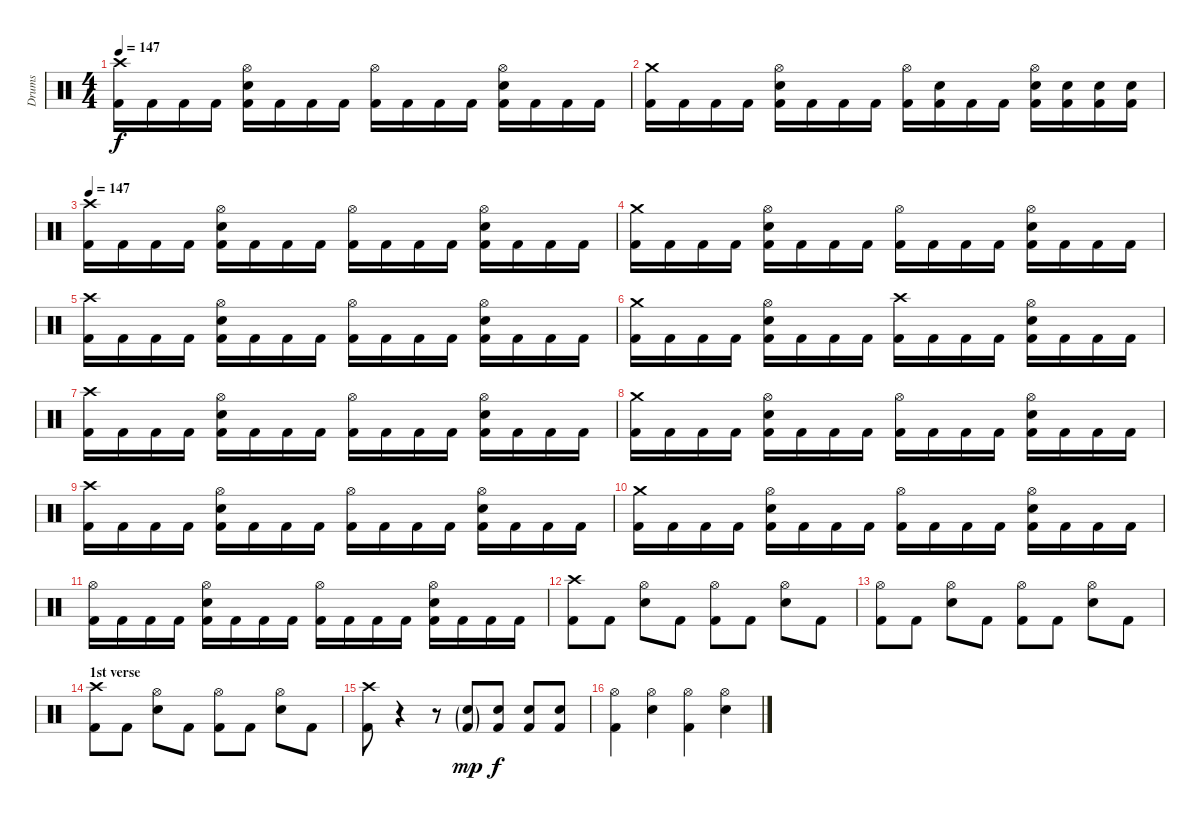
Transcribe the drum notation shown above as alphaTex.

\track ("Drums" "Drums") {instrument percussion}
\staff {score}
\articulation defaults
\ts (4 4)
\tempo 147
\clef neutral
\ks c
("Kick (hit) 2" "Crash high (hit)").16{dy f} "Kick (hit) 2".16 "Kick (hit) 2".16 "Kick (hit) 2".16 ("Kick (hit) 2" "Electric Snare (hit)" "Hi-Hat (open)").16 "Kick (hit) 2".16 "Kick (hit) 2".16 "Kick (hit) 2".16 ("Kick (hit) 2" "Hi-Hat (open)").16 "Kick (hit) 2".16 "Kick (hit) 2".16 "Kick (hit) 2".16 ("Kick (hit) 2" "Electric Snare (hit)" "Hi-Hat (open)").16 "Kick (hit) 2".16 "Kick (hit) 2".16 "Kick (hit) 2".16 |
("Kick (hit) 2" "Crash medium (hit)").16 "Kick (hit) 2".16 "Kick (hit) 2".16 "Kick (hit) 2".16 ("Kick (hit) 2" "Electric Snare (hit)" "Hi-Hat (open)").16 "Kick (hit) 2".16 "Kick (hit) 2".16 "Kick (hit) 2".16 ("Kick (hit) 2" "Hi-Hat (open)").16 ("Kick (hit) 2" "Electric Snare (hit)").16 "Kick (hit) 2".16 "Kick (hit) 2".16 ("Kick (hit) 2" "Electric Snare (hit)" "Hi-Hat (open)").16 ("Kick (hit) 2" "Electric Snare (hit)").16 ("Kick (hit) 2" "Electric Snare (hit)").16 ("Kick (hit) 2" "Electric Snare (hit)").16 |
\tempo 147
("Kick (hit) 2" "Crash high (hit)").16 "Kick (hit) 2".16 "Kick (hit) 2".16 "Kick (hit) 2".16 ("Kick (hit) 2" "Electric Snare (hit)" "Hi-Hat (open)").16 "Kick (hit) 2".16 "Kick (hit) 2".16 "Kick (hit) 2".16 ("Kick (hit) 2" "Hi-Hat (open)").16 "Kick (hit) 2".16 "Kick (hit) 2".16 "Kick (hit) 2".16 ("Kick (hit) 2" "Electric Snare (hit)" "Hi-Hat (open)").16 "Kick (hit) 2".16 "Kick (hit) 2".16 "Kick (hit) 2".16 |
("Kick (hit) 2" "Crash medium (hit)").16 "Kick (hit) 2".16 "Kick (hit) 2".16 "Kick (hit) 2".16 ("Kick (hit) 2" "Electric Snare (hit)" "Hi-Hat (open)").16 "Kick (hit) 2".16 "Kick (hit) 2".16 "Kick (hit) 2".16 ("Kick (hit) 2" "Hi-Hat (open)").16 "Kick (hit) 2".16 "Kick (hit) 2".16 "Kick (hit) 2".16 ("Kick (hit) 2" "Electric Snare (hit)" "Hi-Hat (open)").16 "Kick (hit) 2".16 "Kick (hit) 2".16 "Kick (hit) 2".16 |
("Kick (hit) 2" "Crash high (hit)").16 "Kick (hit) 2".16 "Kick (hit) 2".16 "Kick (hit) 2".16 ("Kick (hit) 2" "Electric Snare (hit)" "Hi-Hat (open)").16 "Kick (hit) 2".16 "Kick (hit) 2".16 "Kick (hit) 2".16 ("Kick (hit) 2" "Hi-Hat (open)").16 "Kick (hit) 2".16 "Kick (hit) 2".16 "Kick (hit) 2".16 ("Kick (hit) 2" "Electric Snare (hit)" "Hi-Hat (open)").16 "Kick (hit) 2".16 "Kick (hit) 2".16 "Kick (hit) 2".16 |
("Kick (hit) 2" "Crash medium (hit)").16 "Kick (hit) 2".16 "Kick (hit) 2".16 "Kick (hit) 2".16 ("Kick (hit) 2" "Electric Snare (hit)" "Hi-Hat (open)").16 "Kick (hit) 2".16 "Kick (hit) 2".16 "Kick (hit) 2".16 ("Kick (hit) 2" "Crash high (hit)").16 "Kick (hit) 2".16 "Kick (hit) 2".16 "Kick (hit) 2".16 ("Kick (hit) 2" "Electric Snare (hit)" "Hi-Hat (open)").16 "Kick (hit) 2".16 "Kick (hit) 2".16 "Kick (hit) 2".16 |
("Kick (hit) 2" "Crash high (hit)").16 "Kick (hit) 2".16 "Kick (hit) 2".16 "Kick (hit) 2".16 ("Kick (hit) 2" "Electric Snare (hit)" "Hi-Hat (open)").16 "Kick (hit) 2".16 "Kick (hit) 2".16 "Kick (hit) 2".16 ("Kick (hit) 2" "Hi-Hat (open)").16 "Kick (hit) 2".16 "Kick (hit) 2".16 "Kick (hit) 2".16 ("Kick (hit) 2" "Electric Snare (hit)" "Hi-Hat (open)").16 "Kick (hit) 2".16 "Kick (hit) 2".16 "Kick (hit) 2".16 |
("Kick (hit) 2" "Crash medium (hit)").16 "Kick (hit) 2".16 "Kick (hit) 2".16 "Kick (hit) 2".16 ("Kick (hit) 2" "Electric Snare (hit)" "Hi-Hat (open)").16 "Kick (hit) 2".16 "Kick (hit) 2".16 "Kick (hit) 2".16 ("Kick (hit) 2" "Hi-Hat (open)").16 "Kick (hit) 2".16 "Kick (hit) 2".16 "Kick (hit) 2".16 ("Kick (hit) 2" "Electric Snare (hit)" "Hi-Hat (open)").16 "Kick (hit) 2".16 "Kick (hit) 2".16 "Kick (hit) 2".16 |
("Kick (hit) 2" "Crash high (hit)").16 "Kick (hit) 2".16 "Kick (hit) 2".16 "Kick (hit) 2".16 ("Kick (hit) 2" "Electric Snare (hit)" "Hi-Hat (open)").16 "Kick (hit) 2".16 "Kick (hit) 2".16 "Kick (hit) 2".16 ("Kick (hit) 2" "Hi-Hat (open)").16 "Kick (hit) 2".16 "Kick (hit) 2".16 "Kick (hit) 2".16 ("Kick (hit) 2" "Electric Snare (hit)" "Hi-Hat (open)").16 "Kick (hit) 2".16 "Kick (hit) 2".16 "Kick (hit) 2".16 |
("Kick (hit) 2" "Crash medium (hit)").16 "Kick (hit) 2".16 "Kick (hit) 2".16 "Kick (hit) 2".16 ("Kick (hit) 2" "Electric Snare (hit)" "Hi-Hat (open)").16 "Kick (hit) 2".16 "Kick (hit) 2".16 "Kick (hit) 2".16 ("Kick (hit) 2" "Hi-Hat (open)").16 "Kick (hit) 2".16 "Kick (hit) 2".16 "Kick (hit) 2".16 ("Kick (hit) 2" "Electric Snare (hit)" "Hi-Hat (open)").16 "Kick (hit) 2".16 "Kick (hit) 2".16 "Kick (hit) 2".16 |
("Kick (hit) 2" "Hi-Hat (open)").16 "Kick (hit) 2".16 "Kick (hit) 2".16 "Kick (hit) 2".16 ("Kick (hit) 2" "Electric Snare (hit)" "Hi-Hat (open)").16 "Kick (hit) 2".16 "Kick (hit) 2".16 "Kick (hit) 2".16 ("Kick (hit) 2" "Hi-Hat (open)").16 "Kick (hit) 2".16 "Kick (hit) 2".16 "Kick (hit) 2".16 ("Kick (hit) 2" "Electric Snare (hit)" "Hi-Hat (open)").16 "Kick (hit) 2".16 "Kick (hit) 2".16 "Kick (hit) 2".16 |
("Kick (hit) 2" "Crash high (hit)").8 "Kick (hit) 2".8 ("Electric Snare (hit)" "Hi-Hat (open)").8 "Kick (hit) 2".8 ("Kick (hit) 2" "Hi-Hat (open)").8 "Kick (hit) 2".8 ("Electric Snare (hit)" "Hi-Hat (open)").8 "Kick (hit) 2".8 |
("Kick (hit) 2" "Hi-Hat (open)").8 "Kick (hit) 2".8 ("Electric Snare (hit)" "Hi-Hat (open)").8 "Kick (hit) 2".8 ("Kick (hit) 2" "Hi-Hat (open)").8 "Kick (hit) 2".8 ("Electric Snare (hit)" "Hi-Hat (open)").8 "Kick (hit) 2".8 |
\section ("" "1st verse")
("Kick (hit) 2" "Crash high (hit)").8 "Kick (hit) 2".8 ("Electric Snare (hit)" "Hi-Hat (open)").8 "Kick (hit) 2".8 ("Kick (hit) 2" "Hi-Hat (open)").8 "Kick (hit) 2".8 ("Electric Snare (hit)" "Hi-Hat (open)").8 "Kick (hit) 2".8 |
("Kick (hit) 2" "Crash high (hit)").8 r.4 r.8 ("Kick (hit) 2"{g} "Electric Snare (hit)"{g}).8{dy mp} ("Kick (hit) 2" "Electric Snare (hit)").8{dy f} ("Kick (hit) 2" "Electric Snare (hit)").8 ("Kick (hit) 2" "Electric Snare (hit)").8 |
("Kick (hit) 2" "Hi-Hat (open)").4 ("Electric Snare (hit)" "Hi-Hat (open)").4 ("Kick (hit) 2" "Hi-Hat (open)").4 ("Electric Snare (hit)" "Hi-Hat (open)").4
